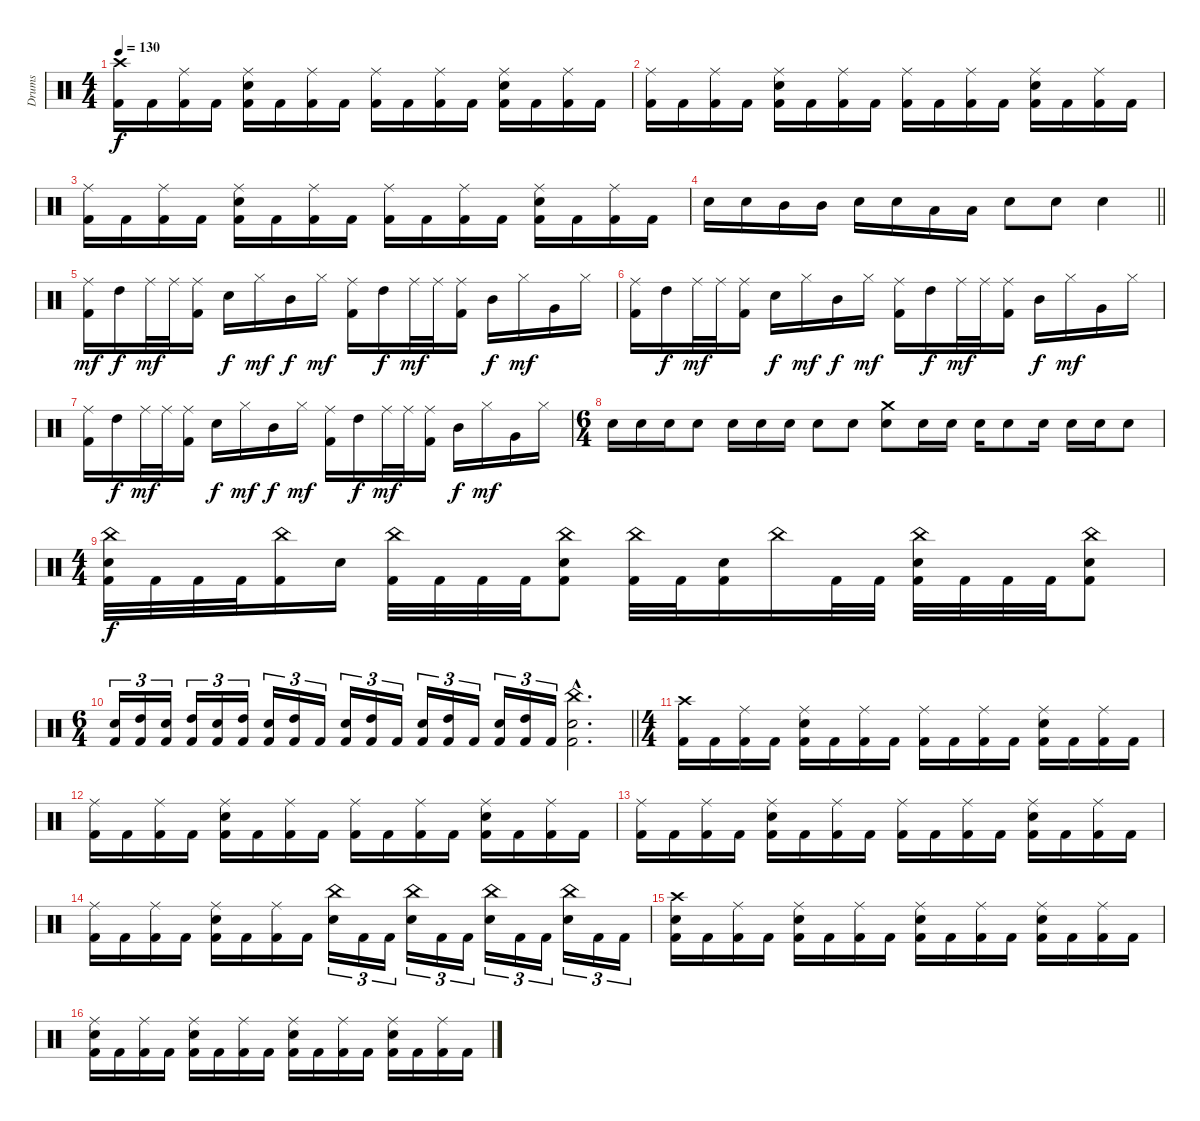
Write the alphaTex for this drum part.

\track ("Drums" "Drums") {instrument percussion}
\staff {score}
\articulation defaults
\ts (4 4)
\tempo 130
\clef neutral
\ks c
("Crash high (hit)" "Kick (hit) 2").16{dy f} "Kick (hit) 2".16 ("Ride (middle)" "Kick (hit) 2").16 "Kick (hit) 2".16 ("Ride (middle)" "Snare (hit) 2" "Kick (hit) 2").16 "Kick (hit) 2".16 ("Ride (middle)" "Kick (hit) 2").16 "Kick (hit) 2".16 ("Ride (middle)" "Kick (hit) 2").16 "Kick (hit) 2".16 ("Ride (middle)" "Kick (hit) 2").16 "Kick (hit) 2".16 ("Ride (middle)" "Snare (hit) 2" "Kick (hit) 2").16 "Kick (hit) 2".16 ("Ride (middle)" "Kick (hit) 2").16 "Kick (hit) 2".16 |
("Ride (middle)" "Kick (hit) 2").16 "Kick (hit) 2".16 ("Ride (middle)" "Kick (hit) 2").16 "Kick (hit) 2".16 ("Ride (middle)" "Snare (hit) 2" "Kick (hit) 2").16 "Kick (hit) 2".16 ("Ride (middle)" "Kick (hit) 2").16 "Kick (hit) 2".16 ("Ride (middle)" "Kick (hit) 2").16 "Kick (hit) 2".16 ("Ride (middle)" "Kick (hit) 2").16 "Kick (hit) 2".16 ("Ride (middle)" "Snare (hit) 2" "Kick (hit) 2").16 "Kick (hit) 2".16 ("Ride (middle)" "Kick (hit) 2").16 "Kick (hit) 2".16 |
("Ride (middle)" "Kick (hit) 2").16 "Kick (hit) 2".16 ("Ride (middle)" "Kick (hit) 2").16 "Kick (hit) 2".16 ("Ride (middle)" "Snare (hit) 2" "Kick (hit) 2").16 "Kick (hit) 2".16 ("Ride (middle)" "Kick (hit) 2").16 "Kick (hit) 2".16 ("Ride (middle)" "Kick (hit) 2").16 "Kick (hit) 2".16 ("Ride (middle)" "Kick (hit) 2").16 "Kick (hit) 2".16 ("Ride (middle)" "Snare (hit) 2" "Kick (hit) 2").16 "Kick (hit) 2".16 ("Ride (middle)" "Kick (hit) 2").16 "Kick (hit) 2".16 |
\barLineRight lightlight "Snare (hit) 2".16 "Snare (hit) 2".16 "Mid Tom (hit)".16 "Mid Tom (hit)".16 "Snare (hit) 2".16 "Snare (hit) 2".16 "Low Tom (hit)".16 "Low Tom (hit)".16 "Snare (hit) 2".8 "Snare (hit) 2".8 "Snare (hit) 2".4
|
\section ("" "")
("Ride (middle)" "Kick (hit) 2").16{dy mf} "High Tom (hit)".16{dy f} "Ride (middle)".32{dy mf} "Ride (middle)".32 ("Ride (middle)" "Kick (hit) 2").16 "Snare (hit) 2".16{dy f} "Hi-Hat (closed)".16{dy mf} "Mid Tom (hit)".16{dy f} "Hi-Hat (closed)".16{dy mf} ("Ride (middle)" "Kick (hit) 2").16 "High Tom (hit)".16{dy f} "Ride (middle)".32{dy mf} "Ride (middle)".32 ("Ride (middle)" "Kick (hit) 2").16 "Mid Tom (hit)".16{dy f} "Hi-Hat (closed)".16{dy mf} "Very Low Tom (hit)".16 "Hi-Hat (closed)".16 |
("Ride (middle)" "Kick (hit) 2").16 "High Tom (hit)".16{dy f} "Ride (middle)".32{dy mf} "Ride (middle)".32 ("Ride (middle)" "Kick (hit) 2").16 "Snare (hit) 2".16{dy f} "Hi-Hat (closed)".16{dy mf} "Mid Tom (hit)".16{dy f} "Hi-Hat (closed)".16{dy mf} ("Ride (middle)" "Kick (hit) 2").16 "High Tom (hit)".16{dy f} "Ride (middle)".32{dy mf} "Ride (middle)".32 ("Ride (middle)" "Kick (hit) 2").16 "Mid Tom (hit)".16{dy f} "Hi-Hat (closed)".16{dy mf} "Very Low Tom (hit)".16 "Hi-Hat (closed)".16 |
("Ride (middle)" "Kick (hit) 2").16 "High Tom (hit)".16{dy f} "Ride (middle)".32{dy mf} "Ride (middle)".32 ("Ride (middle)" "Kick (hit) 2").16 "Snare (hit) 2".16{dy f} "Hi-Hat (closed)".16{dy mf} "Mid Tom (hit)".16{dy f} "Hi-Hat (closed)".16{dy mf} ("Ride (middle)" "Kick (hit) 2").16 "High Tom (hit)".16{dy f} "Ride (middle)".32{dy mf} "Ride (middle)".32 ("Ride (middle)" "Kick (hit) 2").16 "Mid Tom (hit)".16{dy f} "Hi-Hat (closed)".16{dy mf} "Very Low Tom (hit)".16 "Hi-Hat (closed)".16 |
\ts (6 4)
"Snare (hit) 2".16 "Snare (hit) 2".16 "Snare (hit) 2".16 "Snare (hit) 2".8 "Snare (hit) 2".16 "Snare (hit) 2".16 "Snare (hit) 2".16 "Snare (hit) 2".8 "Snare (hit) 2".8 ("Crash medium (hit)" "Snare (hit) 2").8 "Snare (hit) 2".16 "Snare (hit) 2".16 "Snare (hit) 2".16 "Snare (hit) 2".8 "Snare (hit) 2".16 "Snare (hit) 2".16 "Snare (hit) 2".16 "Snare (hit) 2".8 |
\ts (4 4)
("China (hit)" "Snare (hit) 2" "Kick (hit) 2").32{dy f} "Kick (hit) 2".32 "Kick (hit) 2".32 "Kick (hit) 2".32 ("China (hit)" "Kick (hit) 2").16 "Snare (hit) 2".16 ("China (hit)" "Kick (hit) 2").32 "Kick (hit) 2".32 "Kick (hit) 2".32 "Kick (hit) 2".32 ("China (hit)" "Snare (hit) 2" "Kick (hit) 2").8 ("China (hit)" "Kick (hit) 2").32 "Kick (hit) 2".32 ("Snare (hit) 2" "Kick (hit) 2").16 "China (hit)".16 "Kick (hit) 2".32 "Kick (hit) 2".32 ("China (hit)" "Snare (hit) 2" "Kick (hit) 2").32 "Kick (hit) 2".32 "Kick (hit) 2".32 "Kick (hit) 2".32 ("China (hit)" "Snare (hit) 2" "Kick (hit) 2").8 |
\ts (6 4)
\barLineRight lightlight
("Snare (hit) 2" "Kick (hit) 2").16{tu (3 2)} ("High Tom (hit)" "Kick (hit) 2").16{tu (3 2)} ("Snare (hit) 2" "Kick (hit) 2").16{tu (3 2)} ("High Tom (hit)" "Kick (hit) 2").16{tu (3 2)} ("Snare (hit) 2" "Kick (hit) 2").16{tu (3 2)} ("High Tom (hit)" "Kick (hit) 2").16{tu (3 2)} ("Snare (hit) 2" "Kick (hit) 2").16{tu (3 2)} ("High Tom (hit)" "Kick (hit) 2").16{tu (3 2)} "Kick (hit) 2".16{tu (3 2)} ("Snare (hit) 2" "Kick (hit) 2").16{tu (3 2)} ("High Tom (hit)" "Kick (hit) 2").16{tu (3 2)} "Kick (hit) 2".16{tu (3 2)} ("Snare (hit) 2" "Kick (hit) 2").16{tu (3 2)} ("High Tom (hit)" "Kick (hit) 2").16{tu (3 2)} "Kick (hit) 2".16{tu (3 2)} ("Snare (hit) 2" "Kick (hit) 2").16{tu (3 2)} ("High Tom (hit)" "Kick (hit) 2").16{tu (3 2)} "Kick (hit) 2".16{tu (3 2)} ("China (hit)"{hac} "Snare (hit) 2"{hac} "Kick (hit) 2"{hac}).2{d} |
\ts (4 4)
\section ("" "")
("Crash high (hit)" "Kick (hit) 2").16 "Kick (hit) 2".16 ("Ride (middle)" "Kick (hit) 2").16 "Kick (hit) 2".16 ("Ride (middle)" "Snare (hit) 2" "Kick (hit) 2").16 "Kick (hit) 2".16 ("Ride (middle)" "Kick (hit) 2").16 "Kick (hit) 2".16 ("Ride (middle)" "Kick (hit) 2").16 "Kick (hit) 2".16 ("Ride (middle)" "Kick (hit) 2").16 "Kick (hit) 2".16 ("Ride (middle)" "Snare (hit) 2" "Kick (hit) 2").16 "Kick (hit) 2".16 ("Ride (middle)" "Kick (hit) 2").16 "Kick (hit) 2".16 |
("Ride (middle)" "Kick (hit) 2").16 "Kick (hit) 2".16 ("Ride (middle)" "Kick (hit) 2").16 "Kick (hit) 2".16 ("Ride (middle)" "Snare (hit) 2" "Kick (hit) 2").16 "Kick (hit) 2".16 ("Ride (middle)" "Kick (hit) 2").16 "Kick (hit) 2".16 ("Ride (middle)" "Kick (hit) 2").16 "Kick (hit) 2".16 ("Ride (middle)" "Kick (hit) 2").16 "Kick (hit) 2".16 ("Ride (middle)" "Snare (hit) 2" "Kick (hit) 2").16 "Kick (hit) 2".16 ("Ride (middle)" "Kick (hit) 2").16 "Kick (hit) 2".16 |
("Ride (middle)" "Kick (hit) 2").16 "Kick (hit) 2".16 ("Ride (middle)" "Kick (hit) 2").16 "Kick (hit) 2".16 ("Ride (middle)" "Snare (hit) 2" "Kick (hit) 2").16 "Kick (hit) 2".16 ("Ride (middle)" "Kick (hit) 2").16 "Kick (hit) 2".16 ("Ride (middle)" "Kick (hit) 2").16 "Kick (hit) 2".16 ("Ride (middle)" "Kick (hit) 2").16 "Kick (hit) 2".16 ("Ride (middle)" "Snare (hit) 2" "Kick (hit) 2").16 "Kick (hit) 2".16 ("Ride (middle)" "Kick (hit) 2").16 "Kick (hit) 2".16 |
("Ride (middle)" "Kick (hit) 2").16 "Kick (hit) 2".16 ("Ride (middle)" "Kick (hit) 2").16 "Kick (hit) 2".16 ("Ride (middle)" "Snare (hit) 2" "Kick (hit) 2").16 "Kick (hit) 2".16 ("Ride (middle)" "Kick (hit) 2").16 "Kick (hit) 2".16 ("China (hit)" "Snare (hit) 2").16{tu (3 2)} "Kick (hit) 2".16{tu (3 2)} "Kick (hit) 2".16{tu (3 2)} ("China (hit)" "Snare (hit) 2").16{tu (3 2)} "Kick (hit) 2".16{tu (3 2)} "Kick (hit) 2".16{tu (3 2)} ("China (hit)" "Snare (hit) 2").16{tu (3 2)} "Kick (hit) 2".16{tu (3 2)} "Kick (hit) 2".16{tu (3 2)} ("China (hit)" "Snare (hit) 2").16{tu (3 2)} "Kick (hit) 2".16{tu (3 2)} "Kick (hit) 2".16{tu (3 2)} |
("Crash high (hit)" "Snare (hit) 2" "Kick (hit) 2").16 "Kick (hit) 2".16 ("Ride (middle)" "Kick (hit) 2").16 "Kick (hit) 2".16 ("Ride (middle)" "Snare (hit) 2" "Kick (hit) 2").16 "Kick (hit) 2".16 ("Ride (middle)" "Kick (hit) 2").16 "Kick (hit) 2".16 ("Ride (middle)" "Snare (hit) 2" "Kick (hit) 2").16 "Kick (hit) 2".16 ("Ride (middle)" "Kick (hit) 2").16 "Kick (hit) 2".16 ("Ride (middle)" "Snare (hit) 2" "Kick (hit) 2").16 "Kick (hit) 2".16 ("Ride (middle)" "Kick (hit) 2").16 "Kick (hit) 2".16 |
("Ride (middle)" "Snare (hit) 2" "Kick (hit) 2").16 "Kick (hit) 2".16 ("Ride (middle)" "Kick (hit) 2").16 "Kick (hit) 2".16 ("Ride (middle)" "Snare (hit) 2" "Kick (hit) 2").16 "Kick (hit) 2".16 ("Ride (middle)" "Kick (hit) 2").16 "Kick (hit) 2".16 ("Ride (middle)" "Snare (hit) 2" "Kick (hit) 2").16 "Kick (hit) 2".16 ("Ride (middle)" "Kick (hit) 2").16 "Kick (hit) 2".16 ("Ride (middle)" "Snare (hit) 2" "Kick (hit) 2").16 "Kick (hit) 2".16 ("Ride (middle)" "Kick (hit) 2").16 "Kick (hit) 2".16
